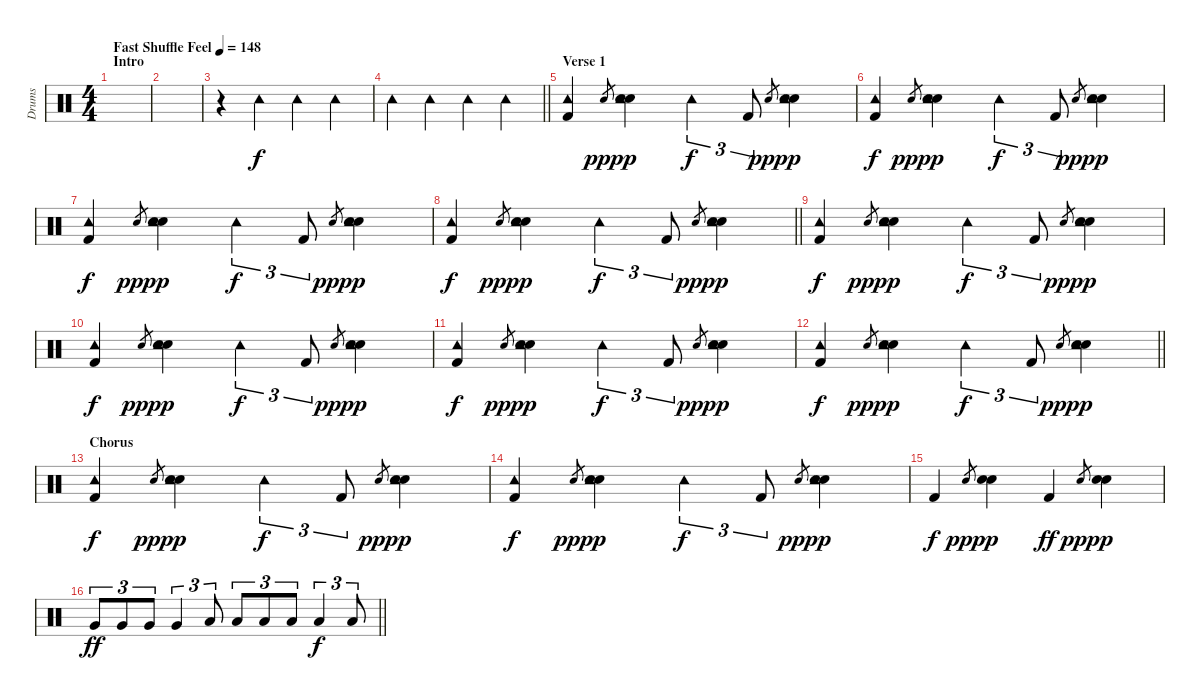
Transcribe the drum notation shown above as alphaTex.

\track ("Drums" "Drums") {instrument percussion}
\staff {score}
\articulation defaults
\ts (4 4)
\section ("" "Intro")
\tempo (148 "Fast Shuffle Feel")
\clef neutral
\ks c
|
|
r.4 "Tambourine (hit)".4 "Tambourine (hit)".4 "Tambourine (hit)".4 |
\barLineRight lightlight "Tambourine (hit)".4 "Tambourine (hit)".4 "Tambourine (hit)".4 "Tambourine (hit)".4
|
\section ("" "Verse 1")
("Tambourine (hit)" "Kick (hit) 2").4 "Electric Snare (hit)".8{gr dy ppp} ("Hand Clap (hit)" "Tambourine (hit)" "Electric Snare (hit)").4{dy p} "Tambourine (hit)".4{tu (3 2) dy f} "Kick (hit) 2".8{tu (3 2)} "Electric Snare (hit)".8{gr dy ppp} ("Hand Clap (hit)" "Tambourine (hit)" "Electric Snare (hit)").4{dy p} |
("Tambourine (hit)" "Kick (hit) 2").4{dy f} "Electric Snare (hit)".8{gr dy ppp} ("Hand Clap (hit)" "Tambourine (hit)" "Electric Snare (hit)").4{dy p} "Tambourine (hit)".4{tu (3 2) dy f} "Kick (hit) 2".8{tu (3 2)} "Electric Snare (hit)".8{gr dy ppp} ("Hand Clap (hit)" "Tambourine (hit)" "Electric Snare (hit)").4{dy p} |
("Tambourine (hit)" "Kick (hit) 2").4{dy f} "Electric Snare (hit)".8{gr dy ppp} ("Hand Clap (hit)" "Tambourine (hit)" "Electric Snare (hit)").4{dy p} "Tambourine (hit)".4{tu (3 2) dy f} "Kick (hit) 2".8{tu (3 2)} "Electric Snare (hit)".8{gr dy ppp} ("Hand Clap (hit)" "Tambourine (hit)" "Electric Snare (hit)").4{dy p} |
\barLineRight lightlight
("Tambourine (hit)" "Kick (hit) 2").4{dy f} "Electric Snare (hit)".8{gr dy ppp} ("Hand Clap (hit)" "Tambourine (hit)" "Electric Snare (hit)").4{dy p} "Tambourine (hit)".4{tu (3 2) dy f} "Kick (hit) 2".8{tu (3 2)} "Electric Snare (hit)".8{gr dy ppp} ("Hand Clap (hit)" "Tambourine (hit)" "Electric Snare (hit)").4{dy p} |
("Tambourine (hit)" "Kick (hit) 2").4{dy f} "Electric Snare (hit)".8{gr dy ppp} ("Hand Clap (hit)" "Tambourine (hit)" "Electric Snare (hit)").4{dy p} "Tambourine (hit)".4{tu (3 2) dy f} "Kick (hit) 2".8{tu (3 2)} "Electric Snare (hit)".8{gr dy ppp} ("Hand Clap (hit)" "Tambourine (hit)" "Electric Snare (hit)").4{dy p} |
("Tambourine (hit)" "Kick (hit) 2").4{dy f} "Electric Snare (hit)".8{gr dy ppp} ("Hand Clap (hit)" "Tambourine (hit)" "Electric Snare (hit)").4{dy p} "Tambourine (hit)".4{tu (3 2) dy f} "Kick (hit) 2".8{tu (3 2)} "Electric Snare (hit)".8{gr dy ppp} ("Hand Clap (hit)" "Tambourine (hit)" "Electric Snare (hit)").4{dy p} |
("Tambourine (hit)" "Kick (hit) 2").4{dy f} "Electric Snare (hit)".8{gr dy ppp} ("Hand Clap (hit)" "Tambourine (hit)" "Electric Snare (hit)").4{dy p} "Tambourine (hit)".4{tu (3 2) dy f} "Kick (hit) 2".8{tu (3 2)} "Electric Snare (hit)".8{gr dy ppp} ("Hand Clap (hit)" "Tambourine (hit)" "Electric Snare (hit)").4{dy p} |
\barLineRight lightlight
("Tambourine (hit)" "Kick (hit) 2").4{dy f} "Electric Snare (hit)".8{gr dy ppp} ("Hand Clap (hit)" "Tambourine (hit)" "Electric Snare (hit)").4{dy p} "Tambourine (hit)".4{tu (3 2) dy f} "Kick (hit) 2".8{tu (3 2)} "Electric Snare (hit)".8{gr dy ppp} ("Hand Clap (hit)" "Tambourine (hit)" "Electric Snare (hit)").4{dy p} |
\section ("" "Chorus")
("Tambourine (hit)" "Kick (hit) 2").4{dy f} "Electric Snare (hit)".8{gr dy ppp} ("Hand Clap (hit)" "Tambourine (hit)" "Electric Snare (hit)").4{dy p} "Tambourine (hit)".4{tu (3 2) dy f} "Kick (hit) 2".8{tu (3 2)} "Electric Snare (hit)".8{gr dy ppp} ("Hand Clap (hit)" "Tambourine (hit)" "Electric Snare (hit)").4{dy p} |
("Tambourine (hit)" "Kick (hit) 2").4{dy f} "Electric Snare (hit)".8{gr dy ppp} ("Hand Clap (hit)" "Tambourine (hit)" "Electric Snare (hit)").4{dy p} "Tambourine (hit)".4{tu (3 2) dy f} "Kick (hit) 2".8{tu (3 2)} "Electric Snare (hit)".8{gr dy ppp} ("Hand Clap (hit)" "Tambourine (hit)" "Electric Snare (hit)").4{dy p} |
"Kick (hit) 2".4{dy f} "Electric Snare (hit)".8{gr dy ppp} ("Hand Clap (hit)" "Electric Snare (hit)").4{dy p} "Kick (hit) 2".4{dy ff} "Electric Snare (hit)".8{gr dy ppp} ("Hand Clap (hit)" "Electric Snare (hit)").4{dy p} |
\barLineRight lightlight "Very Low Tom (hit)".8{tu (3 2) dy ff} "Very Low Tom (hit)".8{tu (3 2)} "Very Low Tom (hit)".8{tu (3 2)} "Very Low Tom (hit)".4{tu (3 2)} "Low Floor Tom (hit)".8{tu (3 2)} "Low Floor Tom (hit)".8{tu (3 2)} "Low Floor Tom (hit)".8{tu (3 2)} "Low Floor Tom (hit)".8{tu (3 2)} "Low Floor Tom (hit)".4{tu (3 2) dy f} "Low Floor Tom (hit)".8{tu (3 2)}
